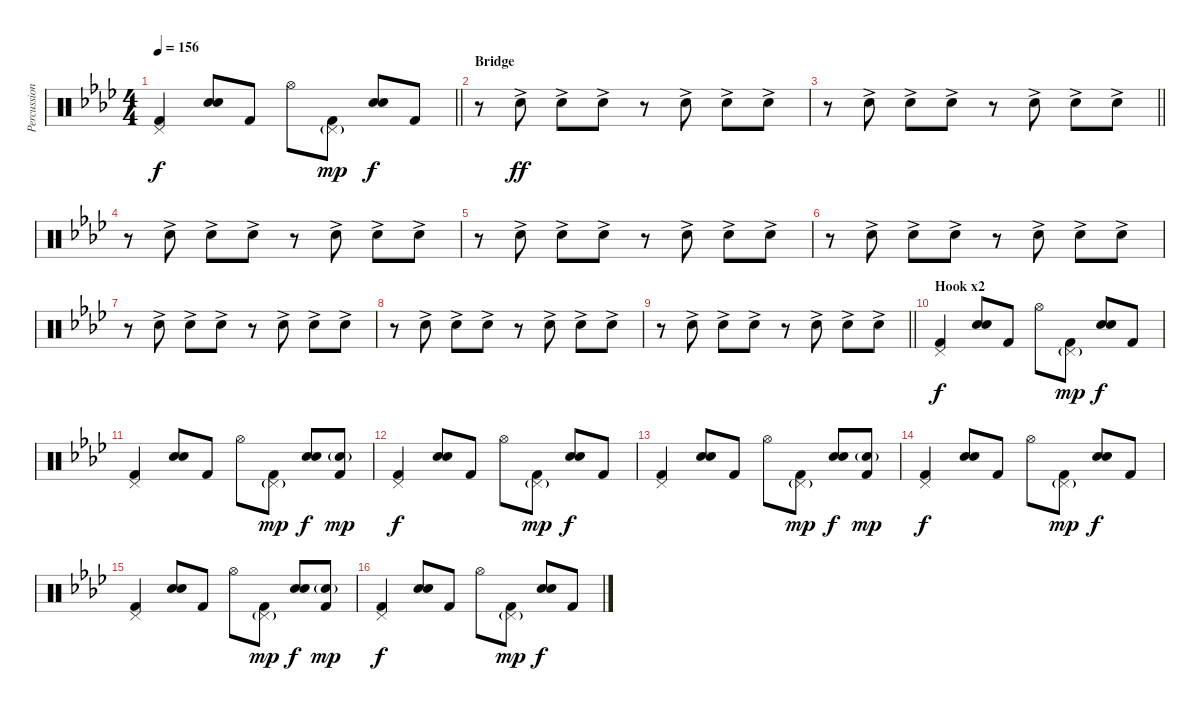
\track ("Percussion" "Percussion") {instrument percussion}
\staff {score}
\articulation defaults
\ts (4 4)
\tempo 156
\clef neutral
\barLineRight lightlight
\ks fminor
("Pedal Hi-Hat (hit)" "Kick (hit) 2").4{dy f} ("Hand Clap (hit)" "Electric Snare (hit)").8 "Kick (hit) 2".8 "Hi-Hat (open)".8 ("Pedal Hi-Hat (hit)"{g} "Kick (hit) 2").8{dy mp} ("Hand Clap (hit)" "Electric Snare (hit)").8{dy f} "Kick (hit) 2".8 |
\section ("" "Bridge")
r.8 "Hand Clap (hit)"{ac}.8{dy ff} "Hand Clap (hit)"{ac}.8 "Hand Clap (hit)"{ac}.8 r.8 "Hand Clap (hit)"{ac}.8 "Hand Clap (hit)"{ac}.8 "Hand Clap (hit)"{ac}.8 |
\barLineRight lightlight
r.8 "Hand Clap (hit)"{ac}.8 "Hand Clap (hit)"{ac}.8 "Hand Clap (hit)"{ac}.8 r.8 "Hand Clap (hit)"{ac}.8 "Hand Clap (hit)"{ac}.8 "Hand Clap (hit)"{ac}.8 |
r.8 "Hand Clap (hit)"{ac}.8 "Hand Clap (hit)"{ac}.8 "Hand Clap (hit)"{ac}.8 r.8 "Hand Clap (hit)"{ac}.8 "Hand Clap (hit)"{ac}.8 "Hand Clap (hit)"{ac}.8 |
r.8 "Hand Clap (hit)"{ac}.8 "Hand Clap (hit)"{ac}.8 "Hand Clap (hit)"{ac}.8 r.8 "Hand Clap (hit)"{ac}.8 "Hand Clap (hit)"{ac}.8 "Hand Clap (hit)"{ac}.8 |
r.8 "Hand Clap (hit)"{ac}.8 "Hand Clap (hit)"{ac}.8 "Hand Clap (hit)"{ac}.8 r.8 "Hand Clap (hit)"{ac}.8 "Hand Clap (hit)"{ac}.8 "Hand Clap (hit)"{ac}.8 |
r.8 "Hand Clap (hit)"{ac}.8 "Hand Clap (hit)"{ac}.8 "Hand Clap (hit)"{ac}.8 r.8 "Hand Clap (hit)"{ac}.8 "Hand Clap (hit)"{ac}.8 "Hand Clap (hit)"{ac}.8 |
r.8 "Hand Clap (hit)"{ac}.8 "Hand Clap (hit)"{ac}.8 "Hand Clap (hit)"{ac}.8 r.8 "Hand Clap (hit)"{ac}.8 "Hand Clap (hit)"{ac}.8 "Hand Clap (hit)"{ac}.8 |
\barLineRight lightlight
r.8 "Hand Clap (hit)"{ac}.8 "Hand Clap (hit)"{ac}.8 "Hand Clap (hit)"{ac}.8 r.8 "Hand Clap (hit)"{ac}.8 "Hand Clap (hit)"{ac}.8 "Hand Clap (hit)"{ac}.8 |
\section ("" "Hook x2")
("Pedal Hi-Hat (hit)" "Kick (hit) 2").4{dy f} ("Hand Clap (hit)" "Electric Snare (hit)").8 "Kick (hit) 2".8 "Hi-Hat (open)".8 ("Pedal Hi-Hat (hit)"{g} "Kick (hit) 2").8{dy mp} ("Hand Clap (hit)" "Electric Snare (hit)").8{dy f} "Kick (hit) 2".8 |
("Pedal Hi-Hat (hit)" "Kick (hit) 2").4 ("Hand Clap (hit)" "Electric Snare (hit)").8 "Kick (hit) 2".8 "Hi-Hat (open)".8 ("Pedal Hi-Hat (hit)"{g} "Kick (hit) 2").8{dy mp} ("Hand Clap (hit)" "Electric Snare (hit)").8{dy f} ("Hand Clap (hit)"{g} "Kick (hit) 2").8{dy mp} |
("Pedal Hi-Hat (hit)" "Kick (hit) 2").4{dy f} ("Hand Clap (hit)" "Electric Snare (hit)").8 "Kick (hit) 2".8 "Hi-Hat (open)".8 ("Pedal Hi-Hat (hit)"{g} "Kick (hit) 2").8{dy mp} ("Hand Clap (hit)" "Electric Snare (hit)").8{dy f} "Kick (hit) 2".8 |
("Pedal Hi-Hat (hit)" "Kick (hit) 2").4 ("Hand Clap (hit)" "Electric Snare (hit)").8 "Kick (hit) 2".8 "Hi-Hat (open)".8 ("Pedal Hi-Hat (hit)"{g} "Kick (hit) 2").8{dy mp} ("Hand Clap (hit)" "Electric Snare (hit)").8{dy f} ("Hand Clap (hit)"{g} "Kick (hit) 2").8{dy mp} |
("Pedal Hi-Hat (hit)" "Kick (hit) 2").4{dy f} ("Hand Clap (hit)" "Electric Snare (hit)").8 "Kick (hit) 2".8 "Hi-Hat (open)".8 ("Pedal Hi-Hat (hit)"{g} "Kick (hit) 2").8{dy mp} ("Hand Clap (hit)" "Electric Snare (hit)").8{dy f} "Kick (hit) 2".8 |
("Pedal Hi-Hat (hit)" "Kick (hit) 2").4 ("Hand Clap (hit)" "Electric Snare (hit)").8 "Kick (hit) 2".8 "Hi-Hat (open)".8 ("Pedal Hi-Hat (hit)"{g} "Kick (hit) 2").8{dy mp} ("Hand Clap (hit)" "Electric Snare (hit)").8{dy f} ("Hand Clap (hit)"{g} "Kick (hit) 2").8{dy mp} |
("Pedal Hi-Hat (hit)" "Kick (hit) 2").4{dy f} ("Hand Clap (hit)" "Electric Snare (hit)").8 "Kick (hit) 2".8 "Hi-Hat (open)".8 ("Pedal Hi-Hat (hit)"{g} "Kick (hit) 2").8{dy mp} ("Hand Clap (hit)" "Electric Snare (hit)").8{dy f} "Kick (hit) 2".8
